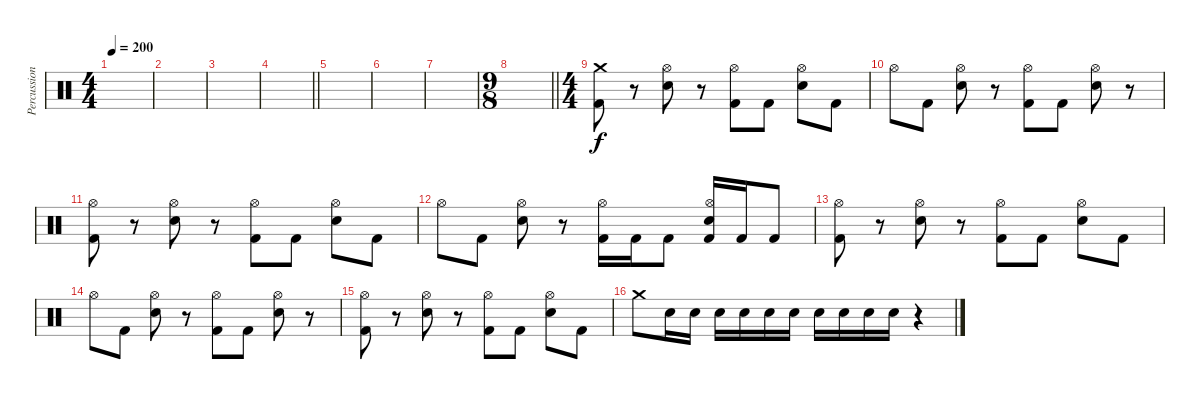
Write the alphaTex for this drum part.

\track ("Percussions" "Percussion") {instrument percussion}
\staff {score}
\articulation defaults
\ts (4 4)
\tempo 200
\clef neutral
\ks c
|
|
|
\barLineRight lightlight
|
|
|
|
\ts (9 8)
\barLineRight lightlight
|
\ts (4 4)
\section ("" "")
("Crash medium (hit)" "Kick (hit) 2").8 r.8 ("Hi-Hat (open)" "Electric Snare (hit)").8 r.8 ("Hi-Hat (open)" "Kick (hit) 2").8 "Kick (hit) 2".8 ("Hi-Hat (open)" "Electric Snare (hit)").8 "Kick (hit) 2".8 |
"Hi-Hat (open)".8 "Kick (hit) 2".8 ("Hi-Hat (open)" "Electric Snare (hit)").8 r.8 ("Hi-Hat (open)" "Kick (hit) 2").8 "Kick (hit) 2".8 ("Hi-Hat (open)" "Electric Snare (hit)").8 r.8 |
("Hi-Hat (open)" "Kick (hit) 2").8 r.8 ("Hi-Hat (open)" "Electric Snare (hit)").8 r.8 ("Hi-Hat (open)" "Kick (hit) 2").8 "Kick (hit) 2".8 ("Hi-Hat (open)" "Electric Snare (hit)").8 "Kick (hit) 2".8 |
"Hi-Hat (open)".8 "Kick (hit) 2".8 ("Hi-Hat (open)" "Electric Snare (hit)").8 r.8 ("Hi-Hat (open)" "Kick (hit) 2").16 "Kick (hit) 2".16 "Kick (hit) 2".8 ("Hi-Hat (open)" "Electric Snare (hit)" "Kick (hit) 2").16 "Kick (hit) 2".16 "Kick (hit) 2".8 |
("Hi-Hat (open)" "Kick (hit) 2").8 r.8 ("Hi-Hat (open)" "Electric Snare (hit)").8 r.8 ("Hi-Hat (open)" "Kick (hit) 2").8 "Kick (hit) 2".8 ("Hi-Hat (open)" "Electric Snare (hit)").8 "Kick (hit) 2".8 |
"Hi-Hat (open)".8 "Kick (hit) 2".8 ("Hi-Hat (open)" "Electric Snare (hit)").8 r.8 ("Hi-Hat (open)" "Kick (hit) 2").8 "Kick (hit) 2".8 ("Hi-Hat (open)" "Electric Snare (hit)").8 r.8 |
("Hi-Hat (open)" "Kick (hit) 2").8 r.8 ("Hi-Hat (open)" "Electric Snare (hit)").8 r.8 ("Hi-Hat (open)" "Kick (hit) 2").8 "Kick (hit) 2".8 ("Hi-Hat (open)" "Electric Snare (hit)").8 "Kick (hit) 2".8 |
"Crash medium (hit)".8 "Electric Snare (hit)".16{volume 0} "Electric Snare (hit)".16 "Electric Snare (hit)".16 "Electric Snare (hit)".16 "Electric Snare (hit)".16 "Electric Snare (hit)".16 "Electric Snare (hit)".16 "Electric Snare (hit)".16 "Electric Snare (hit)".16 "Electric Snare (hit)".16 r.4
